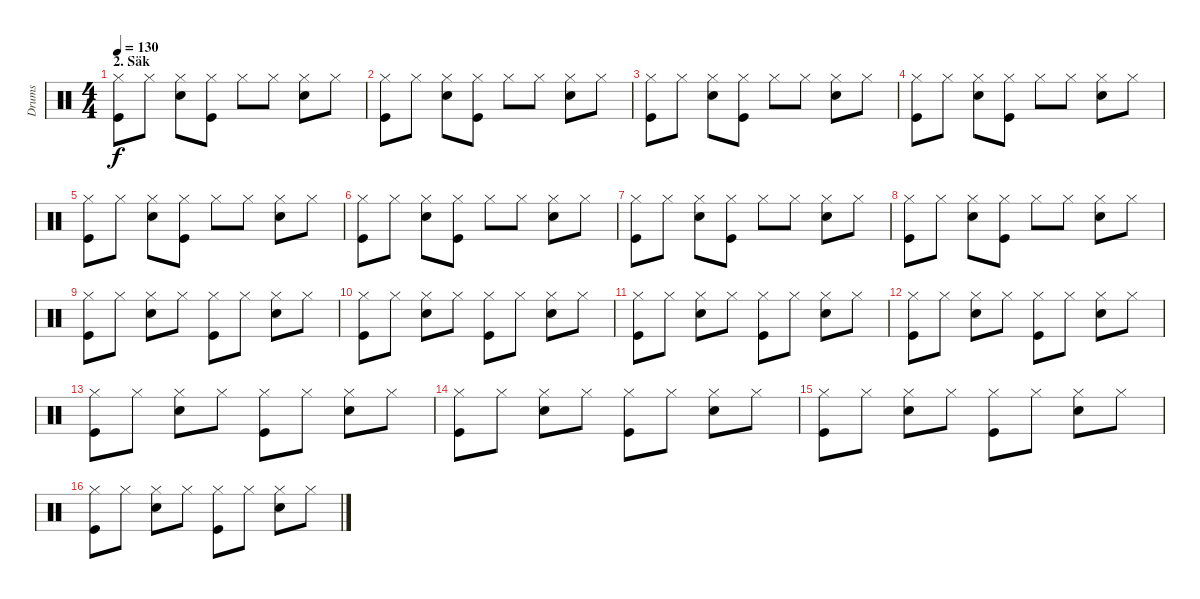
\track ("Drums" "Drums") {instrument percussion}
\staff {score}
\articulation defaults
\ts (4 4)
\section ("" "2. Säk")
\tempo 130
\clef neutral
\ks c
("Hi-Hat (closed)" "Kick (hit)").8{dy f} "Hi-Hat (closed)".8 ("Hi-Hat (closed)" "Electric Snare (hit)").8 ("Hi-Hat (closed)" "Kick (hit)").8 "Hi-Hat (closed)".8 "Hi-Hat (closed)".8 ("Hi-Hat (closed)" "Electric Snare (hit)").8 "Hi-Hat (closed)".8 |
("Hi-Hat (closed)" "Kick (hit)").8 "Hi-Hat (closed)".8 ("Hi-Hat (closed)" "Electric Snare (hit)").8 ("Hi-Hat (closed)" "Kick (hit)").8 "Hi-Hat (closed)".8 "Hi-Hat (closed)".8 ("Hi-Hat (closed)" "Electric Snare (hit)").8 "Hi-Hat (closed)".8 |
("Hi-Hat (closed)" "Kick (hit)").8 "Hi-Hat (closed)".8 ("Hi-Hat (closed)" "Electric Snare (hit)").8 ("Hi-Hat (closed)" "Kick (hit)").8 "Hi-Hat (closed)".8 "Hi-Hat (closed)".8 ("Hi-Hat (closed)" "Electric Snare (hit)").8 "Hi-Hat (closed)".8 |
("Hi-Hat (closed)" "Kick (hit)").8 "Hi-Hat (closed)".8 ("Hi-Hat (closed)" "Electric Snare (hit)").8 ("Hi-Hat (closed)" "Kick (hit)").8 "Hi-Hat (closed)".8 "Hi-Hat (closed)".8 ("Hi-Hat (closed)" "Electric Snare (hit)").8 "Hi-Hat (closed)".8 |
("Hi-Hat (closed)" "Kick (hit)").8 "Hi-Hat (closed)".8 ("Hi-Hat (closed)" "Electric Snare (hit)").8 ("Hi-Hat (closed)" "Kick (hit)").8 "Hi-Hat (closed)".8 "Hi-Hat (closed)".8 ("Hi-Hat (closed)" "Electric Snare (hit)").8 "Hi-Hat (closed)".8 |
("Hi-Hat (closed)" "Kick (hit)").8 "Hi-Hat (closed)".8 ("Hi-Hat (closed)" "Electric Snare (hit)").8 ("Hi-Hat (closed)" "Kick (hit)").8 "Hi-Hat (closed)".8 "Hi-Hat (closed)".8 ("Hi-Hat (closed)" "Electric Snare (hit)").8 "Hi-Hat (closed)".8 |
("Hi-Hat (closed)" "Kick (hit)").8 "Hi-Hat (closed)".8 ("Hi-Hat (closed)" "Electric Snare (hit)").8 ("Hi-Hat (closed)" "Kick (hit)").8 "Hi-Hat (closed)".8 "Hi-Hat (closed)".8 ("Hi-Hat (closed)" "Electric Snare (hit)").8 "Hi-Hat (closed)".8 |
("Hi-Hat (closed)" "Kick (hit)").8 "Hi-Hat (closed)".8 ("Hi-Hat (closed)" "Electric Snare (hit)").8 ("Hi-Hat (closed)" "Kick (hit)").8 "Hi-Hat (closed)".8 "Hi-Hat (closed)".8 ("Hi-Hat (closed)" "Electric Snare (hit)").8 "Hi-Hat (closed)".8 |
("Hi-Hat (closed)" "Kick (hit)").8 "Hi-Hat (closed)".8 ("Hi-Hat (closed)" "Electric Snare (hit)").8 "Hi-Hat (closed)".8 ("Hi-Hat (closed)" "Kick (hit)").8 "Hi-Hat (closed)".8 ("Hi-Hat (closed)" "Electric Snare (hit)").8 "Hi-Hat (closed)".8 |
("Hi-Hat (closed)" "Kick (hit)").8 "Hi-Hat (closed)".8 ("Hi-Hat (closed)" "Electric Snare (hit)").8 "Hi-Hat (closed)".8 ("Hi-Hat (closed)" "Kick (hit)").8 "Hi-Hat (closed)".8 ("Hi-Hat (closed)" "Electric Snare (hit)").8 "Hi-Hat (closed)".8 |
("Hi-Hat (closed)" "Kick (hit)").8 "Hi-Hat (closed)".8 ("Hi-Hat (closed)" "Electric Snare (hit)").8 "Hi-Hat (closed)".8 ("Hi-Hat (closed)" "Kick (hit)").8 "Hi-Hat (closed)".8 ("Hi-Hat (closed)" "Electric Snare (hit)").8 "Hi-Hat (closed)".8 |
("Hi-Hat (closed)" "Kick (hit)").8 "Hi-Hat (closed)".8 ("Hi-Hat (closed)" "Electric Snare (hit)").8 "Hi-Hat (closed)".8 ("Hi-Hat (closed)" "Kick (hit)").8 "Hi-Hat (closed)".8 ("Hi-Hat (closed)" "Electric Snare (hit)").8 "Hi-Hat (closed)".8 |
("Hi-Hat (closed)" "Kick (hit)").8 "Hi-Hat (closed)".8 ("Hi-Hat (closed)" "Electric Snare (hit)").8 "Hi-Hat (closed)".8 ("Hi-Hat (closed)" "Kick (hit)").8 "Hi-Hat (closed)".8 ("Hi-Hat (closed)" "Electric Snare (hit)").8 "Hi-Hat (closed)".8 |
("Hi-Hat (closed)" "Kick (hit)").8 "Hi-Hat (closed)".8 ("Hi-Hat (closed)" "Electric Snare (hit)").8 "Hi-Hat (closed)".8 ("Hi-Hat (closed)" "Kick (hit)").8 "Hi-Hat (closed)".8 ("Hi-Hat (closed)" "Electric Snare (hit)").8 "Hi-Hat (closed)".8 |
("Hi-Hat (closed)" "Kick (hit)").8 "Hi-Hat (closed)".8 ("Hi-Hat (closed)" "Electric Snare (hit)").8 "Hi-Hat (closed)".8 ("Hi-Hat (closed)" "Kick (hit)").8 "Hi-Hat (closed)".8 ("Hi-Hat (closed)" "Electric Snare (hit)").8 "Hi-Hat (closed)".8 |
("Hi-Hat (closed)" "Kick (hit)").8 "Hi-Hat (closed)".8 ("Hi-Hat (closed)" "Electric Snare (hit)").8 "Hi-Hat (closed)".8 ("Hi-Hat (closed)" "Kick (hit)").8 "Hi-Hat (closed)".8 ("Hi-Hat (closed)" "Electric Snare (hit)").8 "Hi-Hat (closed)".8
